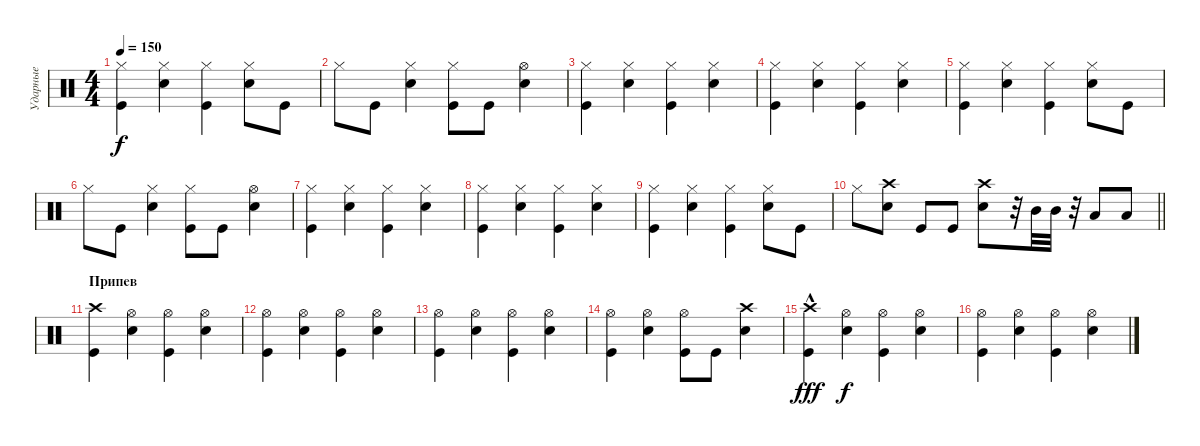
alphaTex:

\track ("Ударные" "Ударные") {instrument percussion}
\staff {score}
\articulation defaults
\ts (4 4)
\tempo 150
\clef neutral
\ks c
("Hi-Hat (closed)" "Kick (hit)").4{dy f} ("Hi-Hat (closed)" "Snare (hit) 2").4 ("Hi-Hat (closed)" "Kick (hit)").4 ("Hi-Hat (closed)" "Snare (hit) 2").8 "Kick (hit)".8 |
"Hi-Hat (closed)".8 "Kick (hit)".8 ("Hi-Hat (closed)" "Snare (hit) 2").4 ("Hi-Hat (closed)" "Kick (hit)").8 "Kick (hit)".8 ("Hi-Hat (open)" "Snare (hit) 2").4 |
("Hi-Hat (closed)" "Kick (hit)").4 ("Hi-Hat (closed)" "Snare (hit) 2").4 ("Hi-Hat (closed)" "Kick (hit)").4 ("Hi-Hat (closed)" "Snare (hit) 2").4 |
("Hi-Hat (closed)" "Kick (hit)").4 ("Hi-Hat (closed)" "Snare (hit) 2").4 ("Hi-Hat (closed)" "Kick (hit)").4 ("Hi-Hat (closed)" "Snare (hit) 2").4 |
("Hi-Hat (closed)" "Kick (hit)").4 ("Hi-Hat (closed)" "Snare (hit) 2").4 ("Hi-Hat (closed)" "Kick (hit)").4 ("Hi-Hat (closed)" "Snare (hit) 2").8 "Kick (hit)".8 |
"Hi-Hat (closed)".8 "Kick (hit)".8 ("Hi-Hat (closed)" "Snare (hit) 2").4 ("Hi-Hat (closed)" "Kick (hit)").8 "Kick (hit)".8 ("Hi-Hat (open)" "Snare (hit) 2").4 |
("Hi-Hat (closed)" "Kick (hit)").4 ("Hi-Hat (closed)" "Snare (hit) 2").4 ("Hi-Hat (closed)" "Kick (hit)").4 ("Hi-Hat (closed)" "Snare (hit) 2").4 |
("Hi-Hat (closed)" "Kick (hit)").4 ("Hi-Hat (closed)" "Snare (hit) 2").4 ("Hi-Hat (closed)" "Kick (hit)").4 ("Hi-Hat (closed)" "Snare (hit) 2").4 |
("Hi-Hat (closed)" "Kick (hit)").4 ("Hi-Hat (closed)" "Snare (hit) 2").4 ("Hi-Hat (closed)" "Kick (hit)").4 ("Hi-Hat (closed)" "Snare (hit) 2").8 "Kick (hit)".8 |
\barLineRight lightlight "Hi-Hat (closed)".8
("Crash high (hit)" "Snare (hit) 2").8 "Kick (hit)".8 "Kick (hit)".8 ("Crash high (hit)" "Snare (hit) 2").8 r.32 "Mid Tom (hit)".32 "Mid Tom (hit)".32 r.32 "Low Tom (hit)".8 "Low Tom (hit)".8 |
\section ("" "Припев")
("Crash high (hit)" "Kick (hit)").4 ("Hi-Hat (open)" "Snare (hit) 2").4 ("Hi-Hat (open)" "Kick (hit)").4 ("Hi-Hat (open)" "Snare (hit) 2").4 |
("Hi-Hat (open)" "Kick (hit)").4 ("Hi-Hat (open)" "Snare (hit) 2").4 ("Hi-Hat (open)" "Kick (hit)").4 ("Hi-Hat (open)" "Snare (hit) 2").4 |
("Hi-Hat (open)" "Kick (hit)").4 ("Hi-Hat (open)" "Snare (hit) 2").4 ("Hi-Hat (open)" "Kick (hit)").4 ("Hi-Hat (open)" "Snare (hit) 2").4 |
("Hi-Hat (open)" "Kick (hit)").4 ("Hi-Hat (open)" "Snare (hit) 2").4 ("Hi-Hat (open)" "Kick (hit)").8 "Kick (hit)".8 ("Crash high (hit)" "Snare (hit) 2").4 |
("Crash high (hit)"{hac} "Kick (hit)").4{dy fff} ("Hi-Hat (open)" "Snare (hit) 2").4{dy f} ("Hi-Hat (open)" "Kick (hit)").4 ("Hi-Hat (open)" "Snare (hit) 2").4 |
("Hi-Hat (open)" "Kick (hit)").4 ("Hi-Hat (open)" "Snare (hit) 2").4 ("Hi-Hat (open)" "Kick (hit)").4 ("Hi-Hat (open)" "Snare (hit) 2").4
